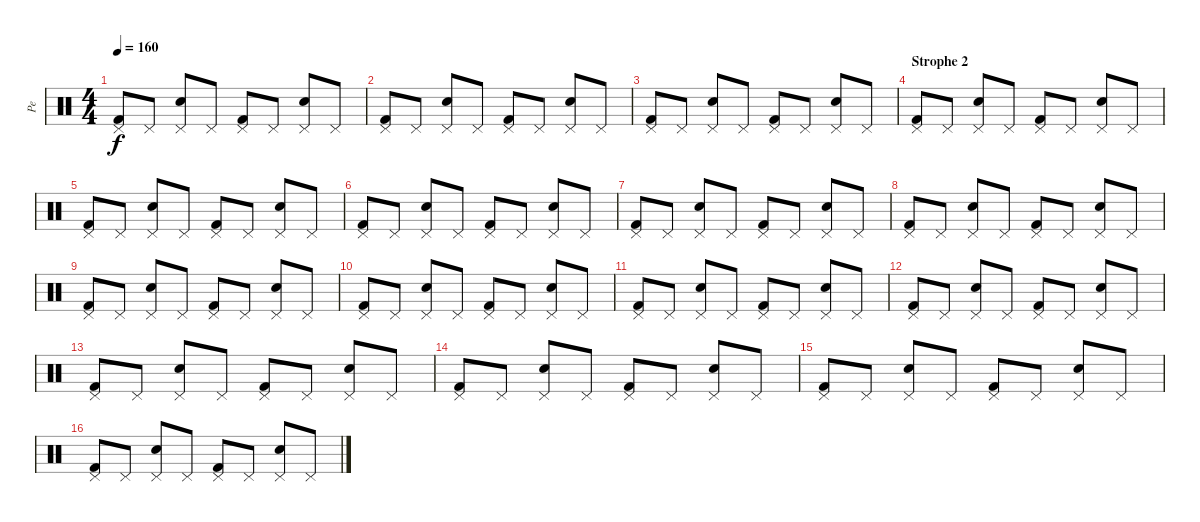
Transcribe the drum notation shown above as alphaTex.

\track ("Pe" "Pe") {instrument percussion}
\staff {score}
\articulation defaults
\ts (4 4)
\tempo 160
\clef neutral
\ks c
("Pedal Hi-Hat (hit)" "Kick (hit) 2").8{dy f} "Pedal Hi-Hat (hit)".8 ("Pedal Hi-Hat (hit)" "Electric Snare (hit)").8 "Pedal Hi-Hat (hit)".8 ("Pedal Hi-Hat (hit)" "Kick (hit) 2").8 "Pedal Hi-Hat (hit)".8 ("Pedal Hi-Hat (hit)" "Electric Snare (hit)").8 "Pedal Hi-Hat (hit)".8 |
("Pedal Hi-Hat (hit)" "Kick (hit) 2").8 "Pedal Hi-Hat (hit)".8 ("Pedal Hi-Hat (hit)" "Electric Snare (hit)").8 "Pedal Hi-Hat (hit)".8 ("Pedal Hi-Hat (hit)" "Kick (hit) 2").8 "Pedal Hi-Hat (hit)".8 ("Pedal Hi-Hat (hit)" "Electric Snare (hit)").8 "Pedal Hi-Hat (hit)".8 |
("Pedal Hi-Hat (hit)" "Kick (hit) 2").8 "Pedal Hi-Hat (hit)".8 ("Pedal Hi-Hat (hit)" "Electric Snare (hit)").8 "Pedal Hi-Hat (hit)".8 ("Pedal Hi-Hat (hit)" "Kick (hit) 2").8 "Pedal Hi-Hat (hit)".8 ("Pedal Hi-Hat (hit)" "Electric Snare (hit)").8 "Pedal Hi-Hat (hit)".8 |
\section ("" "Strophe 2")
("Pedal Hi-Hat (hit)" "Kick (hit) 2").8 "Pedal Hi-Hat (hit)".8 ("Pedal Hi-Hat (hit)" "Electric Snare (hit)").8 "Pedal Hi-Hat (hit)".8 ("Pedal Hi-Hat (hit)" "Kick (hit) 2").8 "Pedal Hi-Hat (hit)".8 ("Pedal Hi-Hat (hit)" "Electric Snare (hit)").8 "Pedal Hi-Hat (hit)".8 |
("Pedal Hi-Hat (hit)" "Kick (hit) 2").8 "Pedal Hi-Hat (hit)".8 ("Pedal Hi-Hat (hit)" "Electric Snare (hit)").8 "Pedal Hi-Hat (hit)".8 ("Pedal Hi-Hat (hit)" "Kick (hit) 2").8 "Pedal Hi-Hat (hit)".8 ("Pedal Hi-Hat (hit)" "Electric Snare (hit)").8 "Pedal Hi-Hat (hit)".8 |
("Pedal Hi-Hat (hit)" "Kick (hit) 2").8 "Pedal Hi-Hat (hit)".8 ("Pedal Hi-Hat (hit)" "Electric Snare (hit)").8 "Pedal Hi-Hat (hit)".8 ("Pedal Hi-Hat (hit)" "Kick (hit) 2").8 "Pedal Hi-Hat (hit)".8 ("Pedal Hi-Hat (hit)" "Electric Snare (hit)").8 "Pedal Hi-Hat (hit)".8 |
("Pedal Hi-Hat (hit)" "Kick (hit) 2").8 "Pedal Hi-Hat (hit)".8 ("Pedal Hi-Hat (hit)" "Electric Snare (hit)").8 "Pedal Hi-Hat (hit)".8 ("Pedal Hi-Hat (hit)" "Kick (hit) 2").8 "Pedal Hi-Hat (hit)".8 ("Pedal Hi-Hat (hit)" "Electric Snare (hit)").8 "Pedal Hi-Hat (hit)".8 |
("Pedal Hi-Hat (hit)" "Kick (hit) 2").8 "Pedal Hi-Hat (hit)".8 ("Pedal Hi-Hat (hit)" "Electric Snare (hit)").8 "Pedal Hi-Hat (hit)".8 ("Pedal Hi-Hat (hit)" "Kick (hit) 2").8 "Pedal Hi-Hat (hit)".8 ("Pedal Hi-Hat (hit)" "Electric Snare (hit)").8 "Pedal Hi-Hat (hit)".8 |
("Pedal Hi-Hat (hit)" "Kick (hit) 2").8 "Pedal Hi-Hat (hit)".8 ("Pedal Hi-Hat (hit)" "Electric Snare (hit)").8 "Pedal Hi-Hat (hit)".8 ("Pedal Hi-Hat (hit)" "Kick (hit) 2").8 "Pedal Hi-Hat (hit)".8 ("Pedal Hi-Hat (hit)" "Electric Snare (hit)").8 "Pedal Hi-Hat (hit)".8 |
("Pedal Hi-Hat (hit)" "Kick (hit) 2").8 "Pedal Hi-Hat (hit)".8 ("Pedal Hi-Hat (hit)" "Electric Snare (hit)").8 "Pedal Hi-Hat (hit)".8 ("Pedal Hi-Hat (hit)" "Kick (hit) 2").8 "Pedal Hi-Hat (hit)".8 ("Pedal Hi-Hat (hit)" "Electric Snare (hit)").8 "Pedal Hi-Hat (hit)".8 |
("Pedal Hi-Hat (hit)" "Kick (hit) 2").8 "Pedal Hi-Hat (hit)".8 ("Pedal Hi-Hat (hit)" "Electric Snare (hit)").8 "Pedal Hi-Hat (hit)".8 ("Pedal Hi-Hat (hit)" "Kick (hit) 2").8 "Pedal Hi-Hat (hit)".8 ("Pedal Hi-Hat (hit)" "Electric Snare (hit)").8 "Pedal Hi-Hat (hit)".8 |
("Pedal Hi-Hat (hit)" "Kick (hit) 2").8 "Pedal Hi-Hat (hit)".8 ("Pedal Hi-Hat (hit)" "Electric Snare (hit)").8 "Pedal Hi-Hat (hit)".8 ("Pedal Hi-Hat (hit)" "Kick (hit) 2").8 "Pedal Hi-Hat (hit)".8 ("Pedal Hi-Hat (hit)" "Electric Snare (hit)").8 "Pedal Hi-Hat (hit)".8 |
("Pedal Hi-Hat (hit)" "Kick (hit) 2").8 "Pedal Hi-Hat (hit)".8 ("Pedal Hi-Hat (hit)" "Electric Snare (hit)").8 "Pedal Hi-Hat (hit)".8 ("Pedal Hi-Hat (hit)" "Kick (hit) 2").8 "Pedal Hi-Hat (hit)".8 ("Pedal Hi-Hat (hit)" "Electric Snare (hit)").8 "Pedal Hi-Hat (hit)".8 |
("Pedal Hi-Hat (hit)" "Kick (hit) 2").8 "Pedal Hi-Hat (hit)".8 ("Pedal Hi-Hat (hit)" "Electric Snare (hit)").8 "Pedal Hi-Hat (hit)".8 ("Pedal Hi-Hat (hit)" "Kick (hit) 2").8 "Pedal Hi-Hat (hit)".8 ("Pedal Hi-Hat (hit)" "Electric Snare (hit)").8 "Pedal Hi-Hat (hit)".8 |
("Pedal Hi-Hat (hit)" "Kick (hit) 2").8 "Pedal Hi-Hat (hit)".8 ("Pedal Hi-Hat (hit)" "Electric Snare (hit)").8 "Pedal Hi-Hat (hit)".8 ("Pedal Hi-Hat (hit)" "Kick (hit) 2").8 "Pedal Hi-Hat (hit)".8 ("Pedal Hi-Hat (hit)" "Electric Snare (hit)").8 "Pedal Hi-Hat (hit)".8 |
("Pedal Hi-Hat (hit)" "Kick (hit) 2").8 "Pedal Hi-Hat (hit)".8 ("Pedal Hi-Hat (hit)" "Electric Snare (hit)").8 "Pedal Hi-Hat (hit)".8 ("Pedal Hi-Hat (hit)" "Kick (hit) 2").8 "Pedal Hi-Hat (hit)".8 ("Pedal Hi-Hat (hit)" "Electric Snare (hit)").8 "Pedal Hi-Hat (hit)".8
